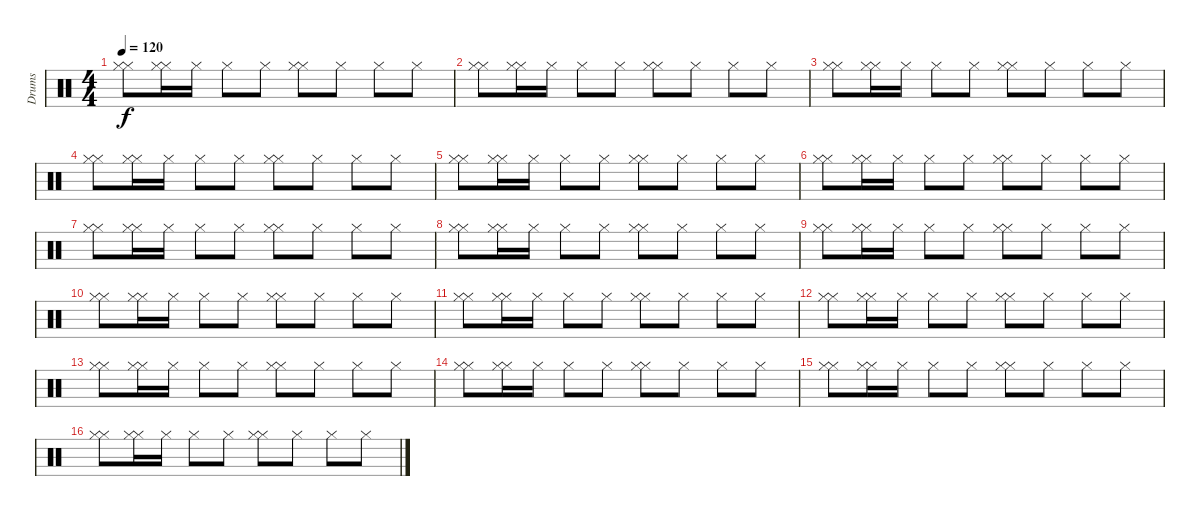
\track ("Drums" "Drums") {instrument percussion}
\staff {score}
\articulation defaults
\ts (4 4)
\tempo 120
\clef neutral
\ks c
("Hi-Hat (closed)" "Hi-Hat (closed)").8{dy f} ("Hi-Hat (closed)" "Hi-Hat (closed)").16 "Hi-Hat (closed)".16 "Hi-Hat (closed)".8 "Hi-Hat (closed)".8 ("Hi-Hat (closed)" "Hi-Hat (closed)").8 "Hi-Hat (closed)".8 "Hi-Hat (closed)".8 "Hi-Hat (closed)".8 |
("Hi-Hat (closed)" "Hi-Hat (closed)").8 ("Hi-Hat (closed)" "Hi-Hat (closed)").16 "Hi-Hat (closed)".16 "Hi-Hat (closed)".8 "Hi-Hat (closed)".8 ("Hi-Hat (closed)" "Hi-Hat (closed)").8 "Hi-Hat (closed)".8 "Hi-Hat (closed)".8 "Hi-Hat (closed)".8 |
("Hi-Hat (closed)" "Hi-Hat (closed)").8 ("Hi-Hat (closed)" "Hi-Hat (closed)").16 "Hi-Hat (closed)".16 "Hi-Hat (closed)".8 "Hi-Hat (closed)".8 ("Hi-Hat (closed)" "Hi-Hat (closed)").8 "Hi-Hat (closed)".8 "Hi-Hat (closed)".8 "Hi-Hat (closed)".8 |
("Hi-Hat (closed)" "Hi-Hat (closed)").8 ("Hi-Hat (closed)" "Hi-Hat (closed)").16 "Hi-Hat (closed)".16 "Hi-Hat (closed)".8 "Hi-Hat (closed)".8 ("Hi-Hat (closed)" "Hi-Hat (closed)").8 "Hi-Hat (closed)".8 "Hi-Hat (closed)".8 "Hi-Hat (closed)".8 |
("Hi-Hat (closed)" "Hi-Hat (closed)").8 ("Hi-Hat (closed)" "Hi-Hat (closed)").16 "Hi-Hat (closed)".16 "Hi-Hat (closed)".8 "Hi-Hat (closed)".8 ("Hi-Hat (closed)" "Hi-Hat (closed)").8 "Hi-Hat (closed)".8 "Hi-Hat (closed)".8 "Hi-Hat (closed)".8 |
("Hi-Hat (closed)" "Hi-Hat (closed)").8 ("Hi-Hat (closed)" "Hi-Hat (closed)").16 "Hi-Hat (closed)".16 "Hi-Hat (closed)".8 "Hi-Hat (closed)".8 ("Hi-Hat (closed)" "Hi-Hat (closed)").8 "Hi-Hat (closed)".8 "Hi-Hat (closed)".8 "Hi-Hat (closed)".8 |
("Hi-Hat (closed)" "Hi-Hat (closed)").8 ("Hi-Hat (closed)" "Hi-Hat (closed)").16 "Hi-Hat (closed)".16 "Hi-Hat (closed)".8 "Hi-Hat (closed)".8 ("Hi-Hat (closed)" "Hi-Hat (closed)").8 "Hi-Hat (closed)".8 "Hi-Hat (closed)".8 "Hi-Hat (closed)".8 |
("Hi-Hat (closed)" "Hi-Hat (closed)").8 ("Hi-Hat (closed)" "Hi-Hat (closed)").16 "Hi-Hat (closed)".16 "Hi-Hat (closed)".8 "Hi-Hat (closed)".8 ("Hi-Hat (closed)" "Hi-Hat (closed)").8 "Hi-Hat (closed)".8 "Hi-Hat (closed)".8 "Hi-Hat (closed)".8 |
("Hi-Hat (closed)" "Hi-Hat (closed)").8 ("Hi-Hat (closed)" "Hi-Hat (closed)").16 "Hi-Hat (closed)".16 "Hi-Hat (closed)".8 "Hi-Hat (closed)".8 ("Hi-Hat (closed)" "Hi-Hat (closed)").8 "Hi-Hat (closed)".8 "Hi-Hat (closed)".8 "Hi-Hat (closed)".8 |
("Hi-Hat (closed)" "Hi-Hat (closed)").8 ("Hi-Hat (closed)" "Hi-Hat (closed)").16 "Hi-Hat (closed)".16 "Hi-Hat (closed)".8 "Hi-Hat (closed)".8 ("Hi-Hat (closed)" "Hi-Hat (closed)").8 "Hi-Hat (closed)".8 "Hi-Hat (closed)".8 "Hi-Hat (closed)".8 |
("Hi-Hat (closed)" "Hi-Hat (closed)").8 ("Hi-Hat (closed)" "Hi-Hat (closed)").16 "Hi-Hat (closed)".16 "Hi-Hat (closed)".8 "Hi-Hat (closed)".8 ("Hi-Hat (closed)" "Hi-Hat (closed)").8 "Hi-Hat (closed)".8 "Hi-Hat (closed)".8 "Hi-Hat (closed)".8 |
("Hi-Hat (closed)" "Hi-Hat (closed)").8 ("Hi-Hat (closed)" "Hi-Hat (closed)").16 "Hi-Hat (closed)".16 "Hi-Hat (closed)".8 "Hi-Hat (closed)".8 ("Hi-Hat (closed)" "Hi-Hat (closed)").8 "Hi-Hat (closed)".8 "Hi-Hat (closed)".8 "Hi-Hat (closed)".8 |
("Hi-Hat (closed)" "Hi-Hat (closed)").8 ("Hi-Hat (closed)" "Hi-Hat (closed)").16 "Hi-Hat (closed)".16 "Hi-Hat (closed)".8 "Hi-Hat (closed)".8 ("Hi-Hat (closed)" "Hi-Hat (closed)").8 "Hi-Hat (closed)".8 "Hi-Hat (closed)".8 "Hi-Hat (closed)".8 |
("Hi-Hat (closed)" "Hi-Hat (closed)").8 ("Hi-Hat (closed)" "Hi-Hat (closed)").16 "Hi-Hat (closed)".16 "Hi-Hat (closed)".8 "Hi-Hat (closed)".8 ("Hi-Hat (closed)" "Hi-Hat (closed)").8 "Hi-Hat (closed)".8 "Hi-Hat (closed)".8 "Hi-Hat (closed)".8 |
("Hi-Hat (closed)" "Hi-Hat (closed)").8 ("Hi-Hat (closed)" "Hi-Hat (closed)").16 "Hi-Hat (closed)".16 "Hi-Hat (closed)".8 "Hi-Hat (closed)".8 ("Hi-Hat (closed)" "Hi-Hat (closed)").8 "Hi-Hat (closed)".8 "Hi-Hat (closed)".8 "Hi-Hat (closed)".8 |
("Hi-Hat (closed)" "Hi-Hat (closed)").8 ("Hi-Hat (closed)" "Hi-Hat (closed)").16 "Hi-Hat (closed)".16 "Hi-Hat (closed)".8 "Hi-Hat (closed)".8 ("Hi-Hat (closed)" "Hi-Hat (closed)").8 "Hi-Hat (closed)".8 "Hi-Hat (closed)".8 "Hi-Hat (closed)".8
